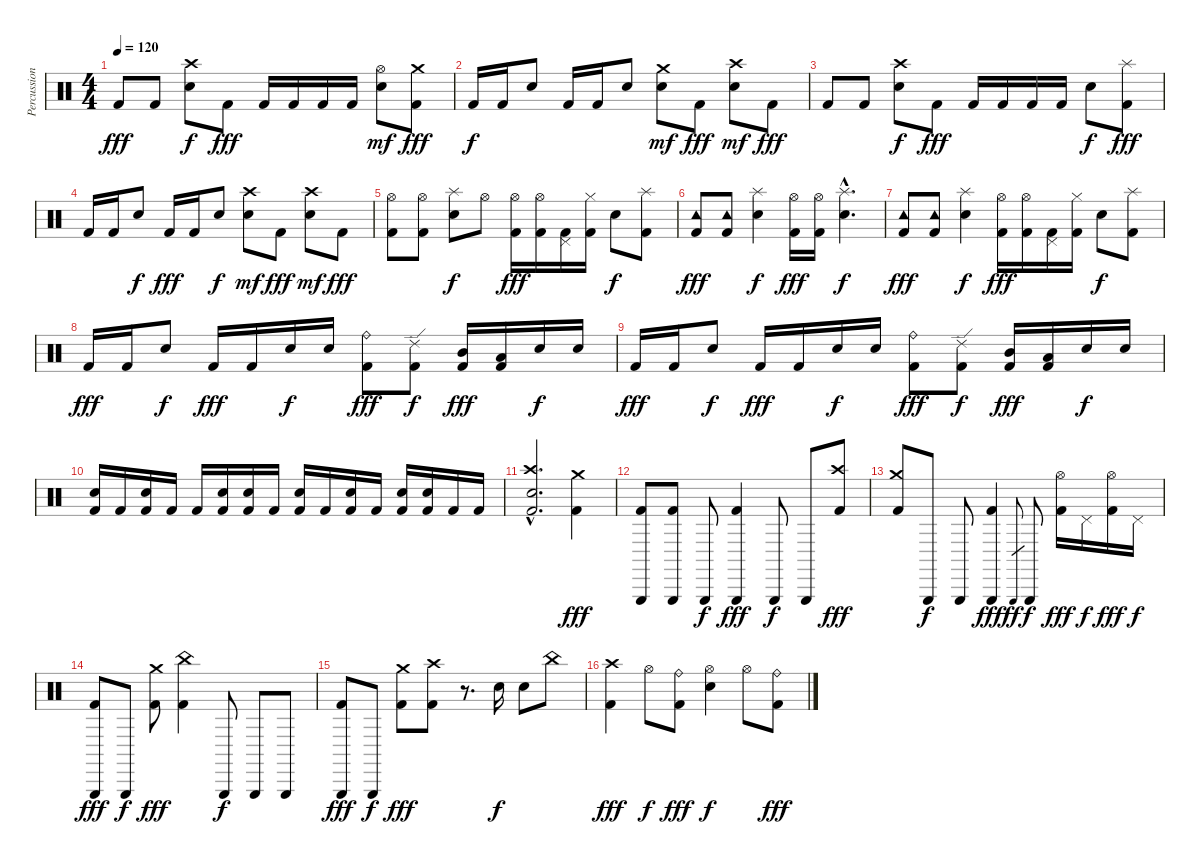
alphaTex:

\track ("Percussion" "Percussion") {instrument percussion}
\staff {score}
\articulation defaults
\ts (4 4)
\tempo 120
\clef neutral
\ks c "Kick (hit) 2".8{dy fff} "Kick (hit) 2".8
("Crash high (hit)" "Electric Snare (hit)").8{dy f} "Kick (hit) 2".8{dy fff} "Kick (hit) 2".16 "Kick (hit) 2".16 "Kick (hit) 2".16 "Kick (hit) 2".16 ("Hi-Hat (open)" "Electric Snare (hit)").8{dy mf} ("Crash medium (hit)" "Kick (hit) 2").8{dy fff} |
"Kick (hit) 2".16{dy f} "Kick (hit) 2".16 "Electric Snare (hit)".8 "Kick (hit) 2".16 "Kick (hit) 2".16 "Electric Snare (hit)".8 ("Crash medium (hit)" "Electric Snare (hit)").8{dy mf} "Kick (hit) 2".8{dy fff} ("Crash high (hit)" "Electric Snare (hit)").8{dy mf} "Kick (hit) 2".8{dy fff} |
"Kick (hit) 2".8 "Kick (hit) 2".8 ("Crash high (hit)" "Electric Snare (hit)").8{dy f} "Kick (hit) 2".8{dy fff} "Kick (hit) 2".16 "Kick (hit) 2".16 "Kick (hit) 2".16 "Kick (hit) 2".16 "Electric Snare (hit)".8{dy f} ("Splash (hit)" "Kick (hit) 2").8{dy fff} |
"Kick (hit) 2".16 "Kick (hit) 2".16 "Electric Snare (hit)".8{dy f} "Kick (hit) 2".16{dy fff} "Kick (hit) 2".16 "Electric Snare (hit)".8{dy f} ("Crash high (hit)" "Electric Snare (hit)").8{dy mf} "Kick (hit) 2".8{dy fff} ("Crash high (hit)" "Electric Snare (hit)").8{dy mf} "Kick (hit) 2".8{dy fff} |
("Hi-Hat (open)" "Kick (hit) 2").8 ("Hi-Hat (open)" "Kick (hit) 2").8 ("Splash (hit)" "Electric Snare (hit)").8{dy f} "Hi-Hat (open)".8 ("Hi-Hat (open)" "Kick (hit) 2").16{dy fff} ("Hi-Hat (open)" "Kick (hit) 2").16 ("Pedal Hi-Hat (hit)" "Kick (hit) 2").16 ("Hi-Hat (closed)" "Kick (hit) 2").16 "Electric Snare (hit)".8{dy f} ("Splash (hit)" "Kick (hit) 2").8 |
("Tambourine (hit)" "Kick (hit) 2").8{dy fff} ("Tambourine (hit)" "Kick (hit) 2").8 ("Splash (hit)" "Electric Snare (hit)").4{dy f} ("Hi-Hat (open)" "Kick (hit) 2").16{dy fff} ("Hi-Hat (open)" "Kick (hit) 2").16 ("Splash (hit)"{hac} "Electric Snare (hit)"{hac}).4{d dy f} |
("Tambourine (hit)" "Kick (hit) 2").8{dy fff} ("Tambourine (hit)" "Kick (hit) 2").8 ("Splash (hit)" "Electric Snare (hit)").4{dy f} ("Hi-Hat (open)" "Kick (hit) 2").16{dy fff} ("Hi-Hat (open)" "Kick (hit) 2").16 ("Pedal Hi-Hat (hit)" "Kick (hit) 2").16 ("Hi-Hat (closed)" "Kick (hit) 2").16 "Electric Snare (hit)".8{dy f} ("Splash (hit)" "Kick (hit) 2").8 |
"Kick (hit) 2".16{dy fff} "Kick (hit) 2".16 "Electric Snare (hit)".8{dy f} "Kick (hit) 2".16{dy fff} "Kick (hit) 2".16 "Electric Snare (hit)".16{dy f} "Electric Snare (hit)".16 ("Ride (bell)" "Kick (hit) 2").8{dy fff} ("Ride (edge) 2" "Kick (hit) 2").8{dy f} ("Mid Tom (hit)" "Kick (hit) 2").16{dy fff} ("Low Tom (hit)" "Kick (hit) 2").16 "Electric Snare (hit)".16{dy f} "Electric Snare (hit)".16 |
"Kick (hit) 2".16{dy fff} "Kick (hit) 2".16 "Electric Snare (hit)".8{dy f} "Kick (hit) 2".16{dy fff} "Kick (hit) 2".16 "Electric Snare (hit)".16{dy f} "Electric Snare (hit)".16 ("Ride (bell)" "Kick (hit) 2").8{dy fff} ("Ride (edge) 2" "Kick (hit) 2").8{dy f} ("Mid Tom (hit)" "Kick (hit) 2").16{dy fff} ("Low Tom (hit)" "Kick (hit) 2").16 "Electric Snare (hit)".16{dy f} "Electric Snare (hit)".16 |
("Electric Snare (hit)" "Kick (hit) 2").16 "Kick (hit) 2".16 ("Electric Snare (hit)" "Kick (hit) 2").16 "Kick (hit) 2".16 "Kick (hit) 2".16 ("Electric Snare (hit)" "Kick (hit) 2").16 ("Electric Snare (hit)" "Kick (hit) 2").16 "Kick (hit) 2".16 ("Electric Snare (hit)" "Kick (hit) 2").16 "Kick (hit) 2".16 ("Electric Snare (hit)" "Kick (hit) 2").16 "Kick (hit) 2".16 ("Electric Snare (hit)" "Kick (hit) 2").16 ("Electric Snare (hit)" "Kick (hit) 2").16 "Kick (hit) 2".16 "Kick (hit) 2".16 |
("Crash high (hit)"{hac} "Electric Snare (hit)"{hac} "Kick (hit) 2"{hac}).2{d} ("Crash medium (hit)" "Kick (hit) 2").4{dy fff} |
("Triangle (hit)" "Kick (hit) 2").8 ("Triangle (hit)" "Kick (hit) 2").8 "Triangle (hit)".8{dy f} ("Triangle (hit)" "Kick (hit) 2").4{dy fff} "Triangle (hit)".8{dy f} "Triangle (hit)".8 ("Crash high (hit)" "Kick (hit) 2").8{dy fff} |
("Crash medium (hit)" "Kick (hit) 2").8 "Triangle (hit)".8{dy f} "Triangle (hit)".8 ("Triangle (hit)" "Kick (hit) 2").4{dy fff} "Triangle (hit)".8{gr dy ff} "Triangle (hit)".8{dy f} ("Hi-Hat (open)" "Kick (hit) 2").16{dy fff} "Pedal Hi-Hat (hit)".16{dy f} ("Hi-Hat (open)" "Kick (hit) 2").16{dy fff} "Pedal Hi-Hat (hit)".16{dy f} |
("Triangle (hit)" "Kick (hit) 2").8{dy fff} "Triangle (hit)".8{dy f} ("Crash medium (hit)" "Kick (hit) 2").8{dy fff} ("China (hit)" "Kick (hit) 2").4 "Triangle (hit)".8{dy f} "Triangle (hit)".8 "Triangle (hit)".8 |
("Triangle (hit)" "Kick (hit) 2").8{dy fff} "Triangle (hit)".8{dy f} ("Crash medium (hit)" "Kick (hit) 2").8{dy fff} ("Crash high (hit)" "Kick (hit) 2").8 r.8{d} "Electric Snare (hit)".16{dy f} "Electric Snare (hit)".8 "China (hit)".8 |
("Crash high (hit)" "Kick (hit) 2").4{dy fff} "Hi-Hat (open)".8{dy f} ("Ride (bell)" "Kick (hit) 2").8{dy fff} ("Hi-Hat (open)" "Electric Snare (hit)").4{dy f} "Hi-Hat (open)".8 ("Ride (bell)" "Kick (hit) 2").8{dy fff}
